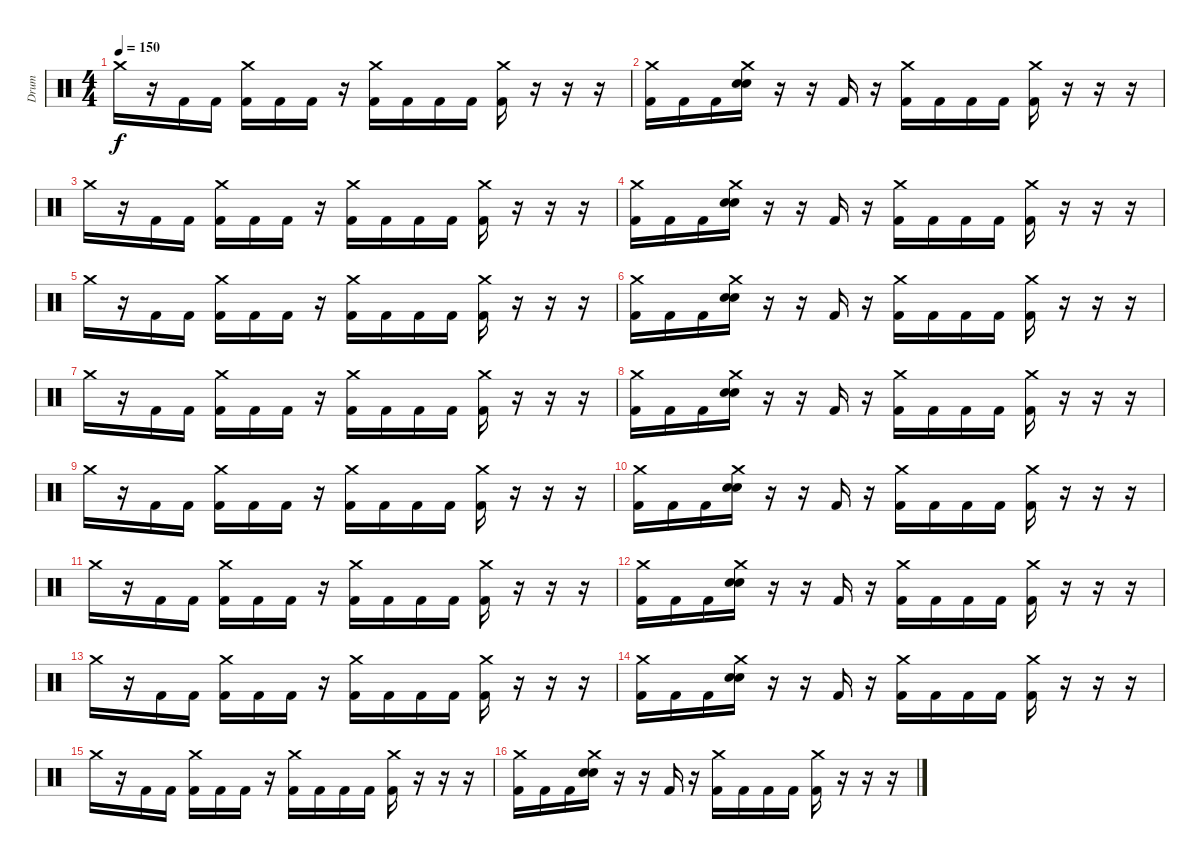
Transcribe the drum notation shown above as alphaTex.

\track ("Drum" "Drum") {instrument percussion}
\staff {score}
\articulation defaults
\ts (4 4)
\tempo 150
\clef neutral
\ks c "Crash medium (hit)".16{dy f}
r.16 "Kick (hit) 2".16 "Kick (hit) 2".16 ("Crash medium (hit)" "Kick (hit) 2").16 "Kick (hit) 2".16 "Kick (hit) 2".16 r.16 ("Crash medium (hit)" "Kick (hit) 2").16 "Kick (hit) 2".16 "Kick (hit) 2".16 "Kick (hit) 2".16 ("Crash medium (hit)" "Kick (hit) 2").16 r.16 r.16 r.16 |
("Crash medium (hit)" "Kick (hit) 2").16 "Kick (hit) 2".16 "Kick (hit) 2".16 ("Crash medium (hit)" "Snare (hit) 2" "Electric Snare (hit)").16 r.16 r.16 "Kick (hit) 2".16 r.16 ("Crash medium (hit)" "Kick (hit) 2").16 "Kick (hit) 2".16 "Kick (hit) 2".16 "Kick (hit) 2".16 ("Crash medium (hit)" "Kick (hit) 2").16 r.16 r.16 r.16 |
"Crash medium (hit)".16 r.16 "Kick (hit) 2".16 "Kick (hit) 2".16 ("Crash medium (hit)" "Kick (hit) 2").16 "Kick (hit) 2".16 "Kick (hit) 2".16 r.16 ("Crash medium (hit)" "Kick (hit) 2").16 "Kick (hit) 2".16 "Kick (hit) 2".16 "Kick (hit) 2".16 ("Crash medium (hit)" "Kick (hit) 2").16 r.16 r.16 r.16 |
("Crash medium (hit)" "Kick (hit) 2").16 "Kick (hit) 2".16 "Kick (hit) 2".16 ("Crash medium (hit)" "Snare (hit) 2" "Electric Snare (hit)").16 r.16 r.16 "Kick (hit) 2".16 r.16 ("Crash medium (hit)" "Kick (hit) 2").16 "Kick (hit) 2".16 "Kick (hit) 2".16 "Kick (hit) 2".16 ("Crash medium (hit)" "Kick (hit) 2").16 r.16 r.16 r.16 |
"Crash medium (hit)".16 r.16 "Kick (hit) 2".16 "Kick (hit) 2".16 ("Crash medium (hit)" "Kick (hit) 2").16 "Kick (hit) 2".16 "Kick (hit) 2".16 r.16 ("Crash medium (hit)" "Kick (hit) 2").16 "Kick (hit) 2".16 "Kick (hit) 2".16 "Kick (hit) 2".16 ("Crash medium (hit)" "Kick (hit) 2").16 r.16 r.16 r.16 |
("Crash medium (hit)" "Kick (hit) 2").16 "Kick (hit) 2".16 "Kick (hit) 2".16 ("Crash medium (hit)" "Snare (hit) 2" "Electric Snare (hit)").16 r.16 r.16 "Kick (hit) 2".16 r.16 ("Crash medium (hit)" "Kick (hit) 2").16 "Kick (hit) 2".16 "Kick (hit) 2".16 "Kick (hit) 2".16 ("Crash medium (hit)" "Kick (hit) 2").16 r.16 r.16 r.16 |
"Crash medium (hit)".16 r.16 "Kick (hit) 2".16 "Kick (hit) 2".16 ("Crash medium (hit)" "Kick (hit) 2").16 "Kick (hit) 2".16 "Kick (hit) 2".16 r.16 ("Crash medium (hit)" "Kick (hit) 2").16 "Kick (hit) 2".16 "Kick (hit) 2".16 "Kick (hit) 2".16 ("Crash medium (hit)" "Kick (hit) 2").16 r.16 r.16 r.16 |
("Crash medium (hit)" "Kick (hit) 2").16 "Kick (hit) 2".16 "Kick (hit) 2".16 ("Crash medium (hit)" "Snare (hit) 2" "Electric Snare (hit)").16 r.16 r.16 "Kick (hit) 2".16 r.16 ("Crash medium (hit)" "Kick (hit) 2").16 "Kick (hit) 2".16 "Kick (hit) 2".16 "Kick (hit) 2".16 ("Crash medium (hit)" "Kick (hit) 2").16 r.16 r.16 r.16 |
"Crash medium (hit)".16 r.16 "Kick (hit) 2".16 "Kick (hit) 2".16 ("Crash medium (hit)" "Kick (hit) 2").16 "Kick (hit) 2".16 "Kick (hit) 2".16 r.16 ("Crash medium (hit)" "Kick (hit) 2").16 "Kick (hit) 2".16 "Kick (hit) 2".16 "Kick (hit) 2".16 ("Crash medium (hit)" "Kick (hit) 2").16 r.16 r.16 r.16 |
("Crash medium (hit)" "Kick (hit) 2").16 "Kick (hit) 2".16 "Kick (hit) 2".16 ("Crash medium (hit)" "Snare (hit) 2" "Electric Snare (hit)").16 r.16 r.16 "Kick (hit) 2".16 r.16 ("Crash medium (hit)" "Kick (hit) 2").16 "Kick (hit) 2".16 "Kick (hit) 2".16 "Kick (hit) 2".16 ("Crash medium (hit)" "Kick (hit) 2").16 r.16 r.16 r.16 |
"Crash medium (hit)".16 r.16 "Kick (hit) 2".16 "Kick (hit) 2".16 ("Crash medium (hit)" "Kick (hit) 2").16 "Kick (hit) 2".16 "Kick (hit) 2".16 r.16 ("Crash medium (hit)" "Kick (hit) 2").16 "Kick (hit) 2".16 "Kick (hit) 2".16 "Kick (hit) 2".16 ("Crash medium (hit)" "Kick (hit) 2").16 r.16 r.16 r.16 |
("Crash medium (hit)" "Kick (hit) 2").16 "Kick (hit) 2".16 "Kick (hit) 2".16 ("Crash medium (hit)" "Snare (hit) 2" "Electric Snare (hit)").16 r.16 r.16 "Kick (hit) 2".16 r.16 ("Crash medium (hit)" "Kick (hit) 2").16 "Kick (hit) 2".16 "Kick (hit) 2".16 "Kick (hit) 2".16 ("Crash medium (hit)" "Kick (hit) 2").16 r.16 r.16 r.16 |
"Crash medium (hit)".16 r.16 "Kick (hit) 2".16 "Kick (hit) 2".16 ("Crash medium (hit)" "Kick (hit) 2").16 "Kick (hit) 2".16 "Kick (hit) 2".16 r.16 ("Crash medium (hit)" "Kick (hit) 2").16 "Kick (hit) 2".16 "Kick (hit) 2".16 "Kick (hit) 2".16 ("Crash medium (hit)" "Kick (hit) 2").16 r.16 r.16 r.16 |
("Crash medium (hit)" "Kick (hit) 2").16 "Kick (hit) 2".16 "Kick (hit) 2".16 ("Crash medium (hit)" "Snare (hit) 2" "Electric Snare (hit)").16 r.16 r.16 "Kick (hit) 2".16 r.16 ("Crash medium (hit)" "Kick (hit) 2").16 "Kick (hit) 2".16 "Kick (hit) 2".16 "Kick (hit) 2".16 ("Crash medium (hit)" "Kick (hit) 2").16 r.16 r.16 r.16 |
"Crash medium (hit)".16 r.16 "Kick (hit) 2".16 "Kick (hit) 2".16 ("Crash medium (hit)" "Kick (hit) 2").16 "Kick (hit) 2".16 "Kick (hit) 2".16 r.16 ("Crash medium (hit)" "Kick (hit) 2").16 "Kick (hit) 2".16 "Kick (hit) 2".16 "Kick (hit) 2".16 ("Crash medium (hit)" "Kick (hit) 2").16 r.16 r.16 r.16 |
("Crash medium (hit)" "Kick (hit) 2").16 "Kick (hit) 2".16 "Kick (hit) 2".16 ("Crash medium (hit)" "Snare (hit) 2" "Electric Snare (hit)").16 r.16 r.16 "Kick (hit) 2".16 r.16 ("Crash medium (hit)" "Kick (hit) 2").16 "Kick (hit) 2".16 "Kick (hit) 2".16 "Kick (hit) 2".16 ("Crash medium (hit)" "Kick (hit) 2").16 r.16 r.16 r.16
